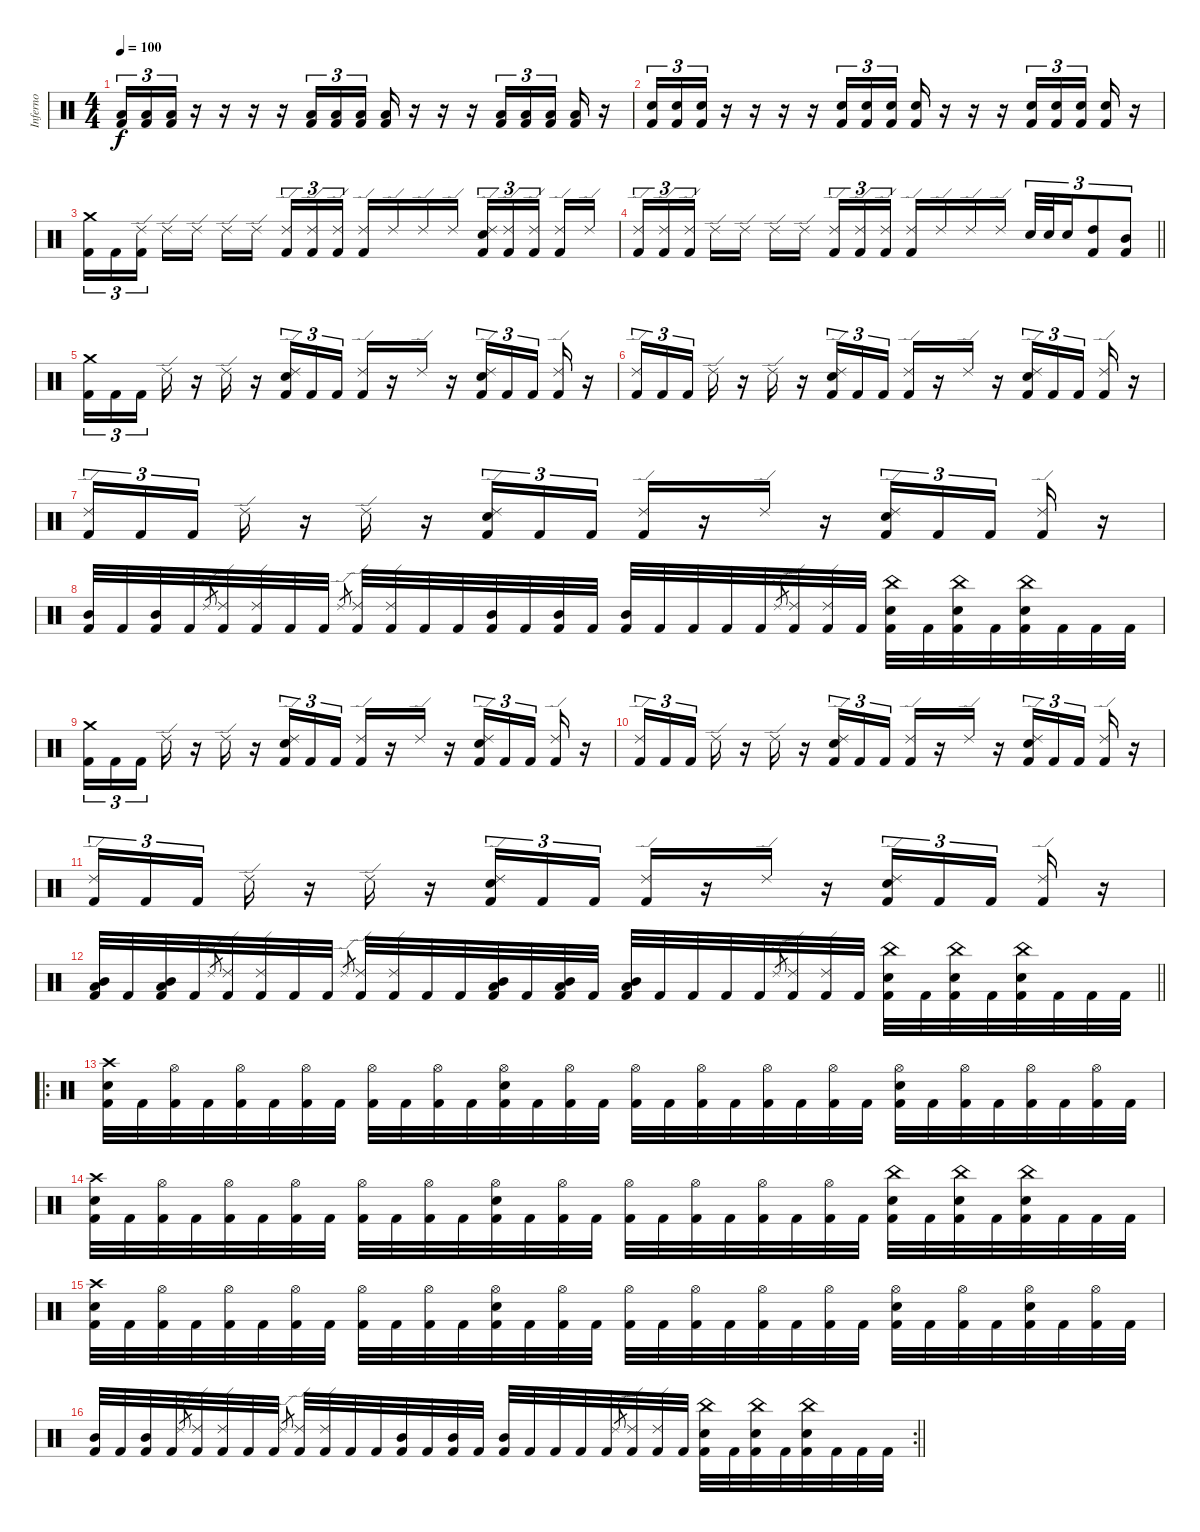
\track ("Inferno" "Inferno") {instrument percussion}
\staff {score}
\articulation defaults
\ts (4 4)
\tempo 100
\clef neutral
\ks c
("Kick (hit) 2" "Low Tom (hit)").16{tu (3 2) dy f} ("Kick (hit) 2" "Low Tom (hit)").16{tu (3 2)} ("Kick (hit) 2" "Low Tom (hit)").16{tu (3 2)} r.16 r.16 r.16 r.16 ("Kick (hit) 2" "Low Tom (hit)").16{tu (3 2)} ("Kick (hit) 2" "Low Tom (hit)").16{tu (3 2)} ("Kick (hit) 2" "Low Tom (hit)").16{tu (3 2)} ("Kick (hit) 2" "Low Tom (hit)").16 r.16 r.16 r.16 ("Kick (hit) 2" "Low Tom (hit)").16{tu (3 2)} ("Kick (hit) 2" "Low Tom (hit)").16{tu (3 2)} ("Kick (hit) 2" "Low Tom (hit)").16{tu (3 2) beam splitsecondary} ("Kick (hit) 2" "Low Tom (hit)").16 r.16 |
("Kick (hit) 2" "Electric Snare (hit)").16{tu (3 2)} ("Kick (hit) 2" "Electric Snare (hit)").16{tu (3 2)} ("Kick (hit) 2" "Electric Snare (hit)").16{tu (3 2)} r.16 r.16 r.16 r.16 ("Kick (hit) 2" "Electric Snare (hit)").16{tu (3 2)} ("Kick (hit) 2" "Electric Snare (hit)").16{tu (3 2)} ("Kick (hit) 2" "Electric Snare (hit)").16{tu (3 2)} ("Kick (hit) 2" "Electric Snare (hit)").16 r.16 r.16 r.16 ("Kick (hit) 2" "Electric Snare (hit)").16{tu (3 2)} ("Kick (hit) 2" "Electric Snare (hit)").16{tu (3 2)} ("Kick (hit) 2" "Electric Snare (hit)").16{tu (3 2) beam splitsecondary} ("Kick (hit) 2" "Electric Snare (hit)").16 r.16 |
("Kick (hit) 2" "Crash medium (hit)").16{tu (3 2)} "Kick (hit) 2".16{tu (3 2)} ("Kick (hit) 2" "Ride (edge) 2").16{tu (3 2) beam splitsecondary} "Ride (edge) 2".16 "Ride (edge) 2".16 "Ride (edge) 2".16 "Ride (edge) 2".16{beam splitsecondary} ("Kick (hit) 2" "Ride (edge) 2").16{tu (3 2)} ("Kick (hit) 2" "Ride (edge) 2").16{tu (3 2)} ("Kick (hit) 2" "Ride (edge) 2").16{tu (3 2)} ("Kick (hit) 2" "Ride (edge) 2").16 "Ride (edge) 2".16 "Ride (edge) 2".16 "Ride (edge) 2".16 ("Kick (hit) 2" "Electric Snare (hit)" "Ride (edge) 2").16{tu (3 2)} ("Kick (hit) 2" "Ride (edge) 2").16{tu (3 2)} ("Kick (hit) 2" "Ride (edge) 2").16{tu (3 2) beam splitsecondary} ("Kick (hit) 2" "Ride (edge) 2").16 "Ride (edge) 2".16 |
\barLineRight lightlight
("Kick (hit) 2" "Ride (edge) 2").16{tu (3 2)} ("Kick (hit) 2" "Ride (edge) 2").16{tu (3 2)} ("Kick (hit) 2" "Ride (edge) 2").16{tu (3 2) beam splitsecondary} "Ride (edge) 2".16 "Ride (edge) 2".16 "Ride (edge) 2".16 "Ride (edge) 2".16{beam splitsecondary} ("Kick (hit) 2" "Ride (edge) 2").16{tu (3 2)} ("Kick (hit) 2" "Ride (edge) 2").16{tu (3 2)} ("Kick (hit) 2" "Ride (edge) 2").16{tu (3 2)} ("Kick (hit) 2" "Ride (edge) 2").16 "Ride (edge) 2".16 "Ride (edge) 2".16 "Ride (edge) 2".16 "Electric Snare (hit)".32{tu (3 2)} "Electric Snare (hit)".32{tu (3 2)} "Electric Snare (hit)".16{tu (3 2)} ("Kick (hit) 2" "High Tom (hit)").8{tu (3 2)} ("Kick (hit) 2" "Mid Tom (hit)").8{tu (3 2)} |
\section ("" "")
("Kick (hit) 2" "Crash medium (hit)").16{tu (3 2)} "Kick (hit) 2".16{tu (3 2)} "Kick (hit) 2".16{tu (3 2) beam splitsecondary} "Ride (edge) 2".16 r.16 "Ride (edge) 2".16 r.16 ("Kick (hit) 2" "Electric Snare (hit)" "Ride (edge) 2").16{tu (3 2)} "Kick (hit) 2".16{tu (3 2)} "Kick (hit) 2".16{tu (3 2)} ("Kick (hit) 2" "Ride (edge) 2").16 r.16 "Ride (edge) 2".16 r.16 ("Kick (hit) 2" "Electric Snare (hit)" "Ride (edge) 2").16{tu (3 2)} "Kick (hit) 2".16{tu (3 2)} "Kick (hit) 2".16{tu (3 2) beam splitsecondary} ("Kick (hit) 2" "Ride (edge) 2").16 r.16 |
("Kick (hit) 2" "Ride (edge) 2").16{tu (3 2)} "Kick (hit) 2".16{tu (3 2)} "Kick (hit) 2".16{tu (3 2) beam splitsecondary} "Ride (edge) 2".16 r.16 "Ride (edge) 2".16 r.16 ("Kick (hit) 2" "Electric Snare (hit)" "Ride (edge) 2").16{tu (3 2)} "Kick (hit) 2".16{tu (3 2)} "Kick (hit) 2".16{tu (3 2)} ("Kick (hit) 2" "Ride (edge) 2").16 r.16 "Ride (edge) 2".16 r.16 ("Kick (hit) 2" "Electric Snare (hit)" "Ride (edge) 2").16{tu (3 2)} "Kick (hit) 2".16{tu (3 2)} "Kick (hit) 2".16{tu (3 2) beam splitsecondary} ("Kick (hit) 2" "Ride (edge) 2").16 r.16 |
("Kick (hit) 2" "Ride (edge) 2").16{tu (3 2)} "Kick (hit) 2".16{tu (3 2)} "Kick (hit) 2".16{tu (3 2) beam splitsecondary} "Ride (edge) 2".16 r.16 "Ride (edge) 2".16 r.16 ("Kick (hit) 2" "Electric Snare (hit)" "Ride (edge) 2").16{tu (3 2)} "Kick (hit) 2".16{tu (3 2)} "Kick (hit) 2".16{tu (3 2)} ("Kick (hit) 2" "Ride (edge) 2").16 r.16 "Ride (edge) 2".16 r.16 ("Kick (hit) 2" "Electric Snare (hit)" "Ride (edge) 2").16{tu (3 2)} "Kick (hit) 2".16{tu (3 2)} "Kick (hit) 2".16{tu (3 2) beam splitsecondary} ("Kick (hit) 2" "Ride (edge) 2").16 r.16 |
("Kick (hit) 2" "Mid Tom (hit)").32 "Kick (hit) 2".32 ("Kick (hit) 2" "Mid Tom (hit)").32 "Kick (hit) 2".32 "Ride (edge) 2".8{gr} ("Kick (hit) 2" "Ride (edge) 2").32 ("Kick (hit) 2" "Ride (edge) 2").32 "Kick (hit) 2".32 "Kick (hit) 2".32 "Ride (edge) 2".8{gr} ("Kick (hit) 2" "Ride (edge) 2").32 ("Kick (hit) 2" "Ride (edge) 2").32 "Kick (hit) 2".32 "Kick (hit) 2".32 ("Kick (hit) 2" "Mid Tom (hit)").32 "Kick (hit) 2".32 ("Kick (hit) 2" "Mid Tom (hit)").32 "Kick (hit) 2".32 ("Kick (hit) 2" "Mid Tom (hit)").32 "Kick (hit) 2".32 "Kick (hit) 2".32 "Kick (hit) 2".32 "Kick (hit) 2".32 "Ride (edge) 2".8{gr} ("Kick (hit) 2" "Ride (edge) 2").32 ("Kick (hit) 2" "Ride (edge) 2").32 "Kick (hit) 2".32 ("Kick (hit) 2" "Electric Snare (hit)" "China (hit)").32 "Kick (hit) 2".32 ("Kick (hit) 2" "Electric Snare (hit)" "China (hit)").32 "Kick (hit) 2".32 ("Kick (hit) 2" "Electric Snare (hit)" "China (hit)").32 "Kick (hit) 2".32 "Kick (hit) 2".32 "Kick (hit) 2".32 |
("Kick (hit) 2" "Crash medium (hit)").16{tu (3 2)} "Kick (hit) 2".16{tu (3 2)} "Kick (hit) 2".16{tu (3 2) beam splitsecondary} "Ride (edge) 2".16 r.16 "Ride (edge) 2".16 r.16 ("Kick (hit) 2" "Electric Snare (hit)" "Ride (edge) 2").16{tu (3 2)} "Kick (hit) 2".16{tu (3 2)} "Kick (hit) 2".16{tu (3 2)} ("Kick (hit) 2" "Ride (edge) 2").16 r.16 "Ride (edge) 2".16 r.16 ("Kick (hit) 2" "Electric Snare (hit)" "Ride (edge) 2").16{tu (3 2)} "Kick (hit) 2".16{tu (3 2)} "Kick (hit) 2".16{tu (3 2) beam splitsecondary} ("Kick (hit) 2" "Ride (edge) 2").16 r.16 |
("Kick (hit) 2" "Ride (edge) 2").16{tu (3 2)} "Kick (hit) 2".16{tu (3 2)} "Kick (hit) 2".16{tu (3 2) beam splitsecondary} "Ride (edge) 2".16 r.16 "Ride (edge) 2".16 r.16 ("Kick (hit) 2" "Electric Snare (hit)" "Ride (edge) 2").16{tu (3 2)} "Kick (hit) 2".16{tu (3 2)} "Kick (hit) 2".16{tu (3 2)} ("Kick (hit) 2" "Ride (edge) 2").16 r.16 "Ride (edge) 2".16 r.16 ("Kick (hit) 2" "Electric Snare (hit)" "Ride (edge) 2").16{tu (3 2)} "Kick (hit) 2".16{tu (3 2)} "Kick (hit) 2".16{tu (3 2) beam splitsecondary} ("Kick (hit) 2" "Ride (edge) 2").16 r.16 |
("Kick (hit) 2" "Ride (edge) 2").16{tu (3 2)} "Kick (hit) 2".16{tu (3 2)} "Kick (hit) 2".16{tu (3 2) beam splitsecondary} "Ride (edge) 2".16 r.16 "Ride (edge) 2".16 r.16 ("Kick (hit) 2" "Electric Snare (hit)" "Ride (edge) 2").16{tu (3 2)} "Kick (hit) 2".16{tu (3 2)} "Kick (hit) 2".16{tu (3 2)} ("Kick (hit) 2" "Ride (edge) 2").16 r.16 "Ride (edge) 2".16 r.16 ("Kick (hit) 2" "Electric Snare (hit)" "Ride (edge) 2").16{tu (3 2)} "Kick (hit) 2".16{tu (3 2)} "Kick (hit) 2".16{tu (3 2) beam splitsecondary} ("Kick (hit) 2" "Ride (edge) 2").16 r.16 |
\barLineRight lightlight
("Kick (hit) 2" "Mid Tom (hit)" "Low Tom (hit)").32 "Kick (hit) 2".32 ("Kick (hit) 2" "Mid Tom (hit)" "Low Tom (hit)").32 "Kick (hit) 2".32 "Ride (edge) 2".8{gr} ("Kick (hit) 2" "Ride (edge) 2").32 ("Kick (hit) 2" "Ride (edge) 2").32 "Kick (hit) 2".32 "Kick (hit) 2".32 "Ride (edge) 2".8{gr} ("Kick (hit) 2" "Ride (edge) 2").32 ("Kick (hit) 2" "Ride (edge) 2").32 "Kick (hit) 2".32 "Kick (hit) 2".32 ("Kick (hit) 2" "Mid Tom (hit)" "Low Tom (hit)").32 "Kick (hit) 2".32 ("Kick (hit) 2" "Mid Tom (hit)" "Low Tom (hit)").32 "Kick (hit) 2".32 ("Kick (hit) 2" "Mid Tom (hit)" "Low Tom (hit)").32 "Kick (hit) 2".32 "Kick (hit) 2".32 "Kick (hit) 2".32 "Kick (hit) 2".32 "Ride (edge) 2".8{gr} ("Kick (hit) 2" "Ride (edge) 2").32 ("Kick (hit) 2" "Ride (edge) 2").32 "Kick (hit) 2".32 ("Kick (hit) 2" "Electric Snare (hit)" "China (hit)").32 "Kick (hit) 2".32 ("Kick (hit) 2" "Electric Snare (hit)" "China (hit)").32 "Kick (hit) 2".32 ("Kick (hit) 2" "Electric Snare (hit)" "China (hit)").32 "Kick (hit) 2".32 "Kick (hit) 2".32 "Kick (hit) 2".32 |
\ro
\section ("" "")
("Kick (hit) 2" "Electric Snare (hit)" "Crash high (hit)").32 "Kick (hit) 2".32 ("Kick (hit) 2" "Hi-Hat (open)").32 "Kick (hit) 2".32 ("Kick (hit) 2" "Hi-Hat (open)").32 "Kick (hit) 2".32 ("Kick (hit) 2" "Hi-Hat (open)").32 "Kick (hit) 2".32 ("Kick (hit) 2" "Hi-Hat (open)").32 "Kick (hit) 2".32 ("Kick (hit) 2" "Hi-Hat (open)").32 "Kick (hit) 2".32 ("Kick (hit) 2" "Electric Snare (hit)" "Hi-Hat (open)").32 "Kick (hit) 2".32 ("Kick (hit) 2" "Hi-Hat (open)").32 "Kick (hit) 2".32 ("Kick (hit) 2" "Hi-Hat (open)").32 "Kick (hit) 2".32 ("Kick (hit) 2" "Hi-Hat (open)").32 "Kick (hit) 2".32 ("Kick (hit) 2" "Hi-Hat (open)").32 "Kick (hit) 2".32 ("Kick (hit) 2" "Hi-Hat (open)").32 "Kick (hit) 2".32 ("Kick (hit) 2" "Electric Snare (hit)" "Hi-Hat (open)").32 "Kick (hit) 2".32 ("Kick (hit) 2" "Hi-Hat (open)").32 "Kick (hit) 2".32 ("Kick (hit) 2" "Hi-Hat (open)").32 "Kick (hit) 2".32 ("Kick (hit) 2" "Hi-Hat (open)").32 "Kick (hit) 2".32 |
("Kick (hit) 2" "Electric Snare (hit)" "Crash high (hit)").32 "Kick (hit) 2".32 ("Kick (hit) 2" "Hi-Hat (open)").32 "Kick (hit) 2".32 ("Kick (hit) 2" "Hi-Hat (open)").32 "Kick (hit) 2".32 ("Kick (hit) 2" "Hi-Hat (open)").32 "Kick (hit) 2".32 ("Kick (hit) 2" "Hi-Hat (open)").32 "Kick (hit) 2".32 ("Kick (hit) 2" "Hi-Hat (open)").32 "Kick (hit) 2".32 ("Kick (hit) 2" "Electric Snare (hit)" "Hi-Hat (open)").32 "Kick (hit) 2".32 ("Kick (hit) 2" "Hi-Hat (open)").32 "Kick (hit) 2".32 ("Kick (hit) 2" "Hi-Hat (open)").32 "Kick (hit) 2".32 ("Kick (hit) 2" "Hi-Hat (open)").32 "Kick (hit) 2".32 ("Kick (hit) 2" "Hi-Hat (open)").32 "Kick (hit) 2".32 ("Kick (hit) 2" "Hi-Hat (open)").32 "Kick (hit) 2".32 ("Kick (hit) 2" "Electric Snare (hit)" "China (hit)").32 "Kick (hit) 2".32 ("Kick (hit) 2" "Electric Snare (hit)" "China (hit)").32 "Kick (hit) 2".32 ("Kick (hit) 2" "Electric Snare (hit)" "China (hit)").32 "Kick (hit) 2".32 "Kick (hit) 2".32 "Kick (hit) 2".32 |
("Kick (hit) 2" "Electric Snare (hit)" "Crash high (hit)").32 "Kick (hit) 2".32 ("Kick (hit) 2" "Hi-Hat (open)").32 "Kick (hit) 2".32 ("Kick (hit) 2" "Hi-Hat (open)").32 "Kick (hit) 2".32 ("Kick (hit) 2" "Hi-Hat (open)").32 "Kick (hit) 2".32 ("Kick (hit) 2" "Hi-Hat (open)").32 "Kick (hit) 2".32 ("Kick (hit) 2" "Hi-Hat (open)").32 "Kick (hit) 2".32 ("Kick (hit) 2" "Electric Snare (hit)" "Hi-Hat (open)").32 "Kick (hit) 2".32 ("Kick (hit) 2" "Hi-Hat (open)").32 "Kick (hit) 2".32 ("Kick (hit) 2" "Hi-Hat (open)").32 "Kick (hit) 2".32 ("Kick (hit) 2" "Hi-Hat (open)").32 "Kick (hit) 2".32 ("Kick (hit) 2" "Hi-Hat (open)").32 "Kick (hit) 2".32 ("Kick (hit) 2" "Hi-Hat (open)").32 "Kick (hit) 2".32 ("Kick (hit) 2" "Electric Snare (hit)" "Hi-Hat (open)").32 "Kick (hit) 2".32 ("Kick (hit) 2" "Hi-Hat (open)").32 "Kick (hit) 2".32 ("Kick (hit) 2" "Electric Snare (hit)" "Hi-Hat (open)").32 "Kick (hit) 2".32 ("Kick (hit) 2" "Hi-Hat (open)").32 "Kick (hit) 2".32 |
\rc 2
\barLineRight lightlight
("Kick (hit) 2" "Mid Tom (hit)").32 "Kick (hit) 2".32 ("Kick (hit) 2" "Mid Tom (hit)").32 "Kick (hit) 2".32 "Ride (edge) 2".8{gr} ("Kick (hit) 2" "Ride (edge) 2").32 ("Kick (hit) 2" "Ride (edge) 2").32 "Kick (hit) 2".32 "Kick (hit) 2".32 "Ride (edge) 2".8{gr} ("Kick (hit) 2" "Ride (edge) 2").32 ("Kick (hit) 2" "Ride (edge) 2").32 "Kick (hit) 2".32 "Kick (hit) 2".32 ("Kick (hit) 2" "Mid Tom (hit)").32 "Kick (hit) 2".32 ("Kick (hit) 2" "Mid Tom (hit)").32 "Kick (hit) 2".32 ("Kick (hit) 2" "Mid Tom (hit)").32 "Kick (hit) 2".32 "Kick (hit) 2".32 "Kick (hit) 2".32 "Kick (hit) 2".32 "Ride (edge) 2".8{gr} ("Kick (hit) 2" "Ride (edge) 2").32 ("Kick (hit) 2" "Ride (edge) 2").32 "Kick (hit) 2".32 ("Kick (hit) 2" "Electric Snare (hit)" "China (hit)").32 "Kick (hit) 2".32 ("Kick (hit) 2" "Electric Snare (hit)" "China (hit)").32 "Kick (hit) 2".32 ("Kick (hit) 2" "Electric Snare (hit)" "China (hit)").32 "Kick (hit) 2".32 "Kick (hit) 2".32 "Kick (hit) 2".32
